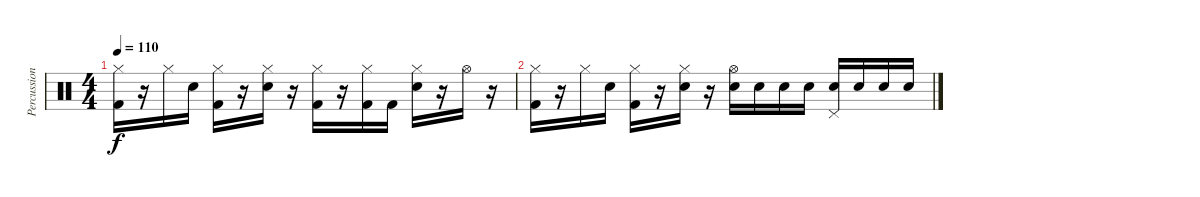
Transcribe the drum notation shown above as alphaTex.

\track ("Percussion" "Percussion") {instrument percussion}
\staff {score}
\articulation defaults
\ts (4 4)
\tempo 110
\clef neutral
\ks c
("Hi-Hat (closed)" "Kick (hit) 2").16{dy f} r.16 "Hi-Hat (closed)".16 "Electric Snare (hit)".16 ("Hi-Hat (closed)" "Kick (hit) 2").16 r.16 ("Hi-Hat (closed)" "Electric Snare (hit)").16 r.16 ("Hi-Hat (closed)" "Kick (hit) 2").16 r.16 ("Hi-Hat (closed)" "Kick (hit) 2").16 "Kick (hit) 2".16 ("Hi-Hat (closed)" "Electric Snare (hit)").16 r.16 "Hi-Hat (open)".16 r.16 |
("Hi-Hat (closed)" "Kick (hit) 2").16 r.16 "Hi-Hat (closed)".16 "Electric Snare (hit)".16 ("Hi-Hat (closed)" "Kick (hit) 2").16 r.16 ("Hi-Hat (closed)" "Electric Snare (hit)").16 r.16 ("Hi-Hat (open)" "Electric Snare (hit)").16 "Electric Snare (hit)".16 "Electric Snare (hit)".16 "Electric Snare (hit)".16 ("Pedal Hi-Hat (hit)" "Electric Snare (hit)").16 "Electric Snare (hit)".16 "Electric Snare (hit)".16 "Electric Snare (hit)".16
